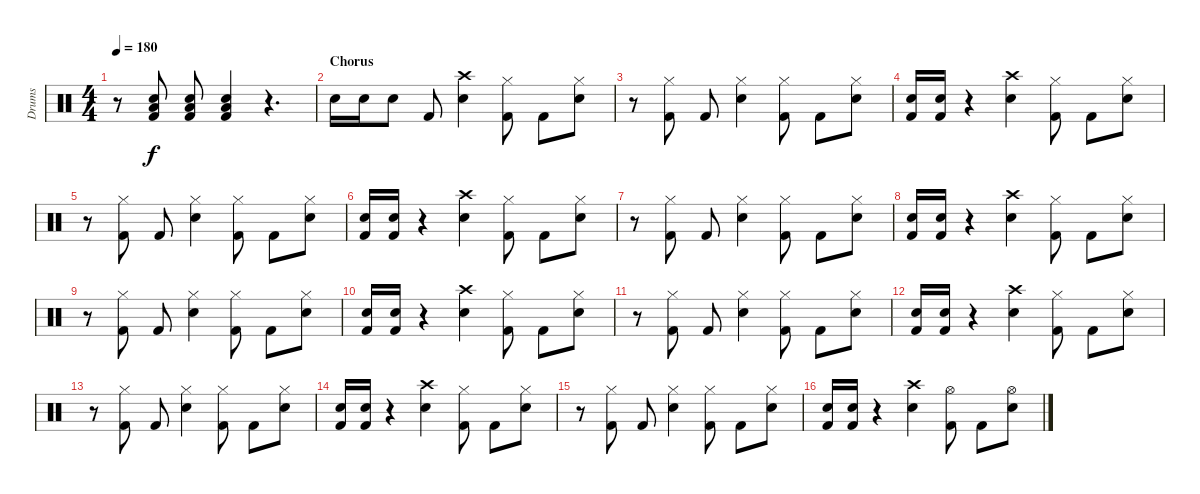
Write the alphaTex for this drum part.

\track ("Drums" "Drums") {instrument percussion}
\staff {score}
\articulation defaults
\ts (4 4)
\tempo 180
\clef neutral
\ks c
r.8{dy f} ("Snare (hit) 2" "Low Floor Tom (hit)" "Kick (hit) 2").8 ("Snare (hit) 2" "Low Floor Tom (hit)" "Kick (hit) 2").8 ("Snare (hit) 2" "Low Floor Tom (hit)" "Kick (hit) 2").4 r.4{d} |
\section ("" "Chorus")
"Snare (hit) 2".16 "Snare (hit) 2".16 "Snare (hit) 2".8 "Kick (hit) 2".8 ("Crash high (hit)" "Snare (hit) 2").4 ("Hi-Hat (closed)" "Kick (hit) 2").8 "Kick (hit) 2".8 ("Hi-Hat (closed)" "Snare (hit) 2").8 |
r.8 ("Hi-Hat (closed)" "Kick (hit) 2").8 "Kick (hit) 2".8 ("Hi-Hat (closed)" "Snare (hit) 2").4 ("Hi-Hat (closed)" "Kick (hit) 2").8 "Kick (hit) 2".8 ("Hi-Hat (closed)" "Snare (hit) 2").8 |
("Snare (hit) 2" "Kick (hit) 2").16 ("Snare (hit) 2" "Kick (hit) 2").16 r.4 ("Crash high (hit)" "Snare (hit) 2").4 ("Hi-Hat (closed)" "Kick (hit) 2").8 "Kick (hit) 2".8 ("Hi-Hat (closed)" "Snare (hit) 2").8 |
r.8 ("Hi-Hat (closed)" "Kick (hit) 2").8 "Kick (hit) 2".8 ("Hi-Hat (closed)" "Snare (hit) 2").4 ("Hi-Hat (closed)" "Kick (hit) 2").8 "Kick (hit) 2".8 ("Hi-Hat (closed)" "Snare (hit) 2").8 |
("Snare (hit) 2" "Kick (hit) 2").16 ("Snare (hit) 2" "Kick (hit) 2").16 r.4 ("Crash high (hit)" "Snare (hit) 2").4 ("Hi-Hat (closed)" "Kick (hit) 2").8 "Kick (hit) 2".8 ("Hi-Hat (closed)" "Snare (hit) 2").8 |
r.8 ("Hi-Hat (closed)" "Kick (hit) 2").8 "Kick (hit) 2".8 ("Hi-Hat (closed)" "Snare (hit) 2").4 ("Hi-Hat (closed)" "Kick (hit) 2").8 "Kick (hit) 2".8 ("Hi-Hat (closed)" "Snare (hit) 2").8 |
("Snare (hit) 2" "Kick (hit) 2").16 ("Snare (hit) 2" "Kick (hit) 2").16 r.4 ("Crash high (hit)" "Snare (hit) 2").4 ("Hi-Hat (closed)" "Kick (hit) 2").8 "Kick (hit) 2".8 ("Hi-Hat (closed)" "Snare (hit) 2").8 |
r.8 ("Hi-Hat (closed)" "Kick (hit) 2").8 "Kick (hit) 2".8 ("Hi-Hat (closed)" "Snare (hit) 2").4 ("Hi-Hat (closed)" "Kick (hit) 2").8 "Kick (hit) 2".8 ("Hi-Hat (closed)" "Snare (hit) 2").8 |
("Snare (hit) 2" "Kick (hit) 2").16 ("Snare (hit) 2" "Kick (hit) 2").16 r.4 ("Crash high (hit)" "Snare (hit) 2").4 ("Hi-Hat (closed)" "Kick (hit) 2").8 "Kick (hit) 2".8 ("Hi-Hat (closed)" "Snare (hit) 2").8 |
r.8 ("Hi-Hat (closed)" "Kick (hit) 2").8 "Kick (hit) 2".8 ("Hi-Hat (closed)" "Snare (hit) 2").4 ("Hi-Hat (closed)" "Kick (hit) 2").8 "Kick (hit) 2".8 ("Hi-Hat (closed)" "Snare (hit) 2").8 |
("Snare (hit) 2" "Kick (hit) 2").16 ("Snare (hit) 2" "Kick (hit) 2").16 r.4 ("Crash high (hit)" "Snare (hit) 2").4 ("Hi-Hat (closed)" "Kick (hit) 2").8 "Kick (hit) 2".8 ("Hi-Hat (closed)" "Snare (hit) 2").8 |
r.8 ("Hi-Hat (closed)" "Kick (hit) 2").8 "Kick (hit) 2".8 ("Hi-Hat (closed)" "Snare (hit) 2").4 ("Hi-Hat (closed)" "Kick (hit) 2").8 "Kick (hit) 2".8 ("Hi-Hat (closed)" "Snare (hit) 2").8 |
("Snare (hit) 2" "Kick (hit) 2").16 ("Snare (hit) 2" "Kick (hit) 2").16 r.4 ("Crash high (hit)" "Snare (hit) 2").4 ("Hi-Hat (closed)" "Kick (hit) 2").8 "Kick (hit) 2".8 ("Hi-Hat (closed)" "Snare (hit) 2").8 |
r.8 ("Hi-Hat (closed)" "Kick (hit) 2").8 "Kick (hit) 2".8 ("Hi-Hat (closed)" "Snare (hit) 2").4 ("Hi-Hat (closed)" "Kick (hit) 2").8 "Kick (hit) 2".8 ("Hi-Hat (closed)" "Snare (hit) 2").8 |
("Snare (hit) 2" "Kick (hit) 2").16 ("Snare (hit) 2" "Kick (hit) 2").16 r.4 ("Crash high (hit)" "Snare (hit) 2").4 ("Hi-Hat (open)" "Kick (hit) 2").8 "Kick (hit) 2".8 ("Hi-Hat (open)" "Snare (hit) 2").8
